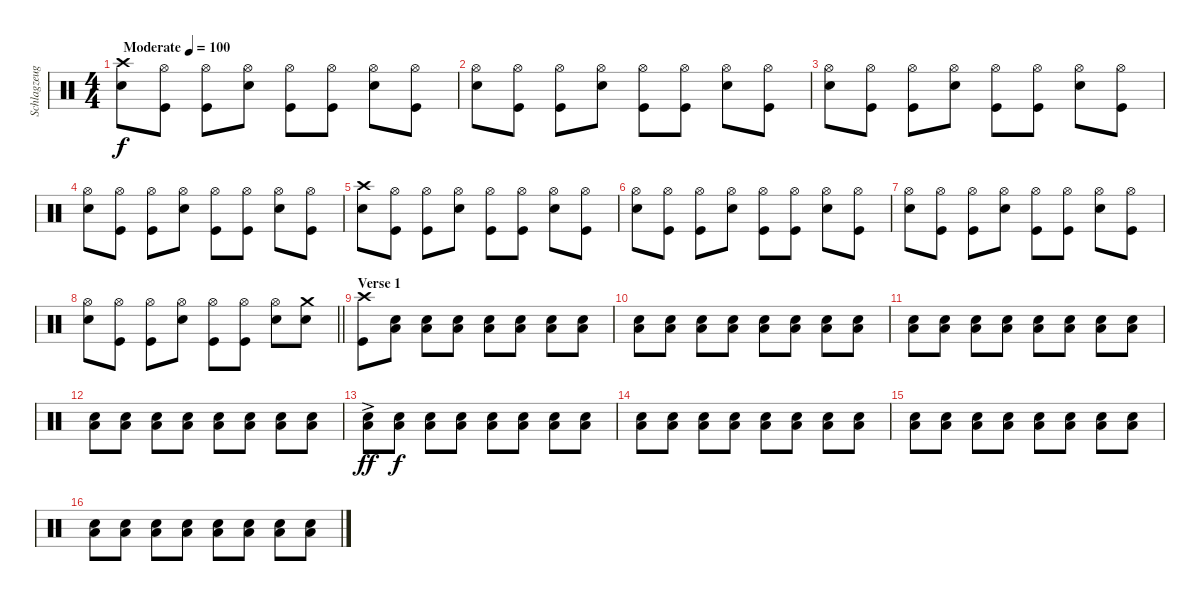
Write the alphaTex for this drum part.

\track ("Schlagzeug" "Schlagzeug") {instrument percussion}
\staff {score}
\articulation defaults
\ts (4 4)
\tempo (100 "Moderate")
\clef neutral
\ks c
("Crash high (hit)" "Snare (hit) 2").8{dy f} ("Hi-Hat (open)" "Kick (hit)").8 ("Hi-Hat (open)" "Kick (hit)").8 ("Hi-Hat (open)" "Snare (hit) 2").8 ("Hi-Hat (open)" "Kick (hit)").8 ("Hi-Hat (open)" "Kick (hit)").8 ("Hi-Hat (open)" "Snare (hit) 2").8 ("Hi-Hat (open)" "Kick (hit)").8 |
("Hi-Hat (open)" "Snare (hit) 2").8 ("Hi-Hat (open)" "Kick (hit)").8 ("Hi-Hat (open)" "Kick (hit)").8 ("Hi-Hat (open)" "Snare (hit) 2").8 ("Hi-Hat (open)" "Kick (hit)").8 ("Hi-Hat (open)" "Kick (hit)").8 ("Hi-Hat (open)" "Snare (hit) 2").8 ("Hi-Hat (open)" "Kick (hit)").8 |
("Hi-Hat (open)" "Snare (hit) 2").8 ("Hi-Hat (open)" "Kick (hit)").8 ("Hi-Hat (open)" "Kick (hit)").8 ("Hi-Hat (open)" "Snare (hit) 2").8 ("Hi-Hat (open)" "Kick (hit)").8 ("Hi-Hat (open)" "Kick (hit)").8 ("Hi-Hat (open)" "Snare (hit) 2").8 ("Hi-Hat (open)" "Kick (hit)").8 |
("Hi-Hat (open)" "Snare (hit) 2").8 ("Hi-Hat (open)" "Kick (hit)").8 ("Hi-Hat (open)" "Kick (hit)").8 ("Hi-Hat (open)" "Snare (hit) 2").8 ("Hi-Hat (open)" "Kick (hit)").8 ("Hi-Hat (open)" "Kick (hit)").8 ("Hi-Hat (open)" "Snare (hit) 2").8 ("Hi-Hat (open)" "Kick (hit)").8 |
("Crash high (hit)" "Snare (hit) 2").8 ("Hi-Hat (open)" "Kick (hit)").8 ("Hi-Hat (open)" "Kick (hit)").8 ("Hi-Hat (open)" "Snare (hit) 2").8 ("Hi-Hat (open)" "Kick (hit)").8 ("Hi-Hat (open)" "Kick (hit)").8 ("Hi-Hat (open)" "Snare (hit) 2").8 ("Hi-Hat (open)" "Kick (hit)").8 |
("Hi-Hat (open)" "Snare (hit) 2").8 ("Hi-Hat (open)" "Kick (hit)").8 ("Hi-Hat (open)" "Kick (hit)").8 ("Hi-Hat (open)" "Snare (hit) 2").8 ("Hi-Hat (open)" "Kick (hit)").8 ("Hi-Hat (open)" "Kick (hit)").8 ("Hi-Hat (open)" "Snare (hit) 2").8 ("Hi-Hat (open)" "Kick (hit)").8 |
("Hi-Hat (open)" "Snare (hit) 2").8 ("Hi-Hat (open)" "Kick (hit)").8 ("Hi-Hat (open)" "Kick (hit)").8 ("Hi-Hat (open)" "Snare (hit) 2").8 ("Hi-Hat (open)" "Kick (hit)").8 ("Hi-Hat (open)" "Kick (hit)").8 ("Hi-Hat (open)" "Snare (hit) 2").8 ("Hi-Hat (open)" "Kick (hit)").8 |
\barLineRight lightlight
("Hi-Hat (open)" "Snare (hit) 2").8 ("Hi-Hat (open)" "Kick (hit)").8 ("Hi-Hat (open)" "Kick (hit)").8 ("Hi-Hat (open)" "Snare (hit) 2").8 ("Hi-Hat (open)" "Kick (hit)").8 ("Hi-Hat (open)" "Kick (hit)").8 ("Hi-Hat (open)" "Snare (hit) 2").8 ("Crash medium (hit)" "Snare (hit) 2").8 |
\section ("" "Verse 1")
("Crash high (hit)" "Kick (hit)").8 ("Snare (hit) 2" "Low Floor Tom (hit)").8{volume 5} ("Snare (hit) 2" "Low Floor Tom (hit)").8{volume 10} ("Snare (hit) 2" "Low Floor Tom (hit)").8 ("Snare (hit) 2" "Low Floor Tom (hit)").8 ("Snare (hit) 2" "Low Floor Tom (hit)").8 ("Snare (hit) 2" "Low Floor Tom (hit)").8 ("Snare (hit) 2" "Low Floor Tom (hit)").8 |
("Snare (hit) 2" "Low Floor Tom (hit)").8 ("Snare (hit) 2" "Low Floor Tom (hit)").8 ("Snare (hit) 2" "Low Floor Tom (hit)").8 ("Snare (hit) 2" "Low Floor Tom (hit)").8 ("Snare (hit) 2" "Low Floor Tom (hit)").8 ("Snare (hit) 2" "Low Floor Tom (hit)").8 ("Snare (hit) 2" "Low Floor Tom (hit)").8 ("Snare (hit) 2" "Low Floor Tom (hit)").8 |
("Snare (hit) 2" "Low Floor Tom (hit)").8 ("Snare (hit) 2" "Low Floor Tom (hit)").8 ("Snare (hit) 2" "Low Floor Tom (hit)").8 ("Snare (hit) 2" "Low Floor Tom (hit)").8 ("Snare (hit) 2" "Low Floor Tom (hit)").8 ("Snare (hit) 2" "Low Floor Tom (hit)").8 ("Snare (hit) 2" "Low Floor Tom (hit)").8 ("Snare (hit) 2" "Low Floor Tom (hit)").8 |
("Snare (hit) 2" "Low Floor Tom (hit)").8 ("Snare (hit) 2" "Low Floor Tom (hit)").8 ("Snare (hit) 2" "Low Floor Tom (hit)").8 ("Snare (hit) 2" "Low Floor Tom (hit)").8 ("Snare (hit) 2" "Low Floor Tom (hit)").8 ("Snare (hit) 2" "Low Floor Tom (hit)").8 ("Snare (hit) 2" "Low Floor Tom (hit)").8 ("Snare (hit) 2" "Low Floor Tom (hit)").8 |
("Snare (hit) 2"{ac} "Low Floor Tom (hit)"{ac}).8{dy ff} ("Snare (hit) 2" "Low Floor Tom (hit)").8{dy f volume 5} ("Snare (hit) 2" "Low Floor Tom (hit)").8{volume 10} ("Snare (hit) 2" "Low Floor Tom (hit)").8 ("Snare (hit) 2" "Low Floor Tom (hit)").8 ("Snare (hit) 2" "Low Floor Tom (hit)").8 ("Snare (hit) 2" "Low Floor Tom (hit)").8 ("Snare (hit) 2" "Low Floor Tom (hit)").8 |
("Snare (hit) 2" "Low Floor Tom (hit)").8 ("Snare (hit) 2" "Low Floor Tom (hit)").8 ("Snare (hit) 2" "Low Floor Tom (hit)").8 ("Snare (hit) 2" "Low Floor Tom (hit)").8 ("Snare (hit) 2" "Low Floor Tom (hit)").8 ("Snare (hit) 2" "Low Floor Tom (hit)").8 ("Snare (hit) 2" "Low Floor Tom (hit)").8 ("Snare (hit) 2" "Low Floor Tom (hit)").8 |
("Snare (hit) 2" "Low Floor Tom (hit)").8 ("Snare (hit) 2" "Low Floor Tom (hit)").8 ("Snare (hit) 2" "Low Floor Tom (hit)").8 ("Snare (hit) 2" "Low Floor Tom (hit)").8 ("Snare (hit) 2" "Low Floor Tom (hit)").8 ("Snare (hit) 2" "Low Floor Tom (hit)").8 ("Snare (hit) 2" "Low Floor Tom (hit)").8 ("Snare (hit) 2" "Low Floor Tom (hit)").8 |
("Snare (hit) 2" "Low Floor Tom (hit)").8 ("Snare (hit) 2" "Low Floor Tom (hit)").8 ("Snare (hit) 2" "Low Floor Tom (hit)").8 ("Snare (hit) 2" "Low Floor Tom (hit)").8 ("Snare (hit) 2" "Low Floor Tom (hit)").8 ("Snare (hit) 2" "Low Floor Tom (hit)").8 ("Snare (hit) 2" "Low Floor Tom (hit)").8 ("Snare (hit) 2" "Low Floor Tom (hit)").8
